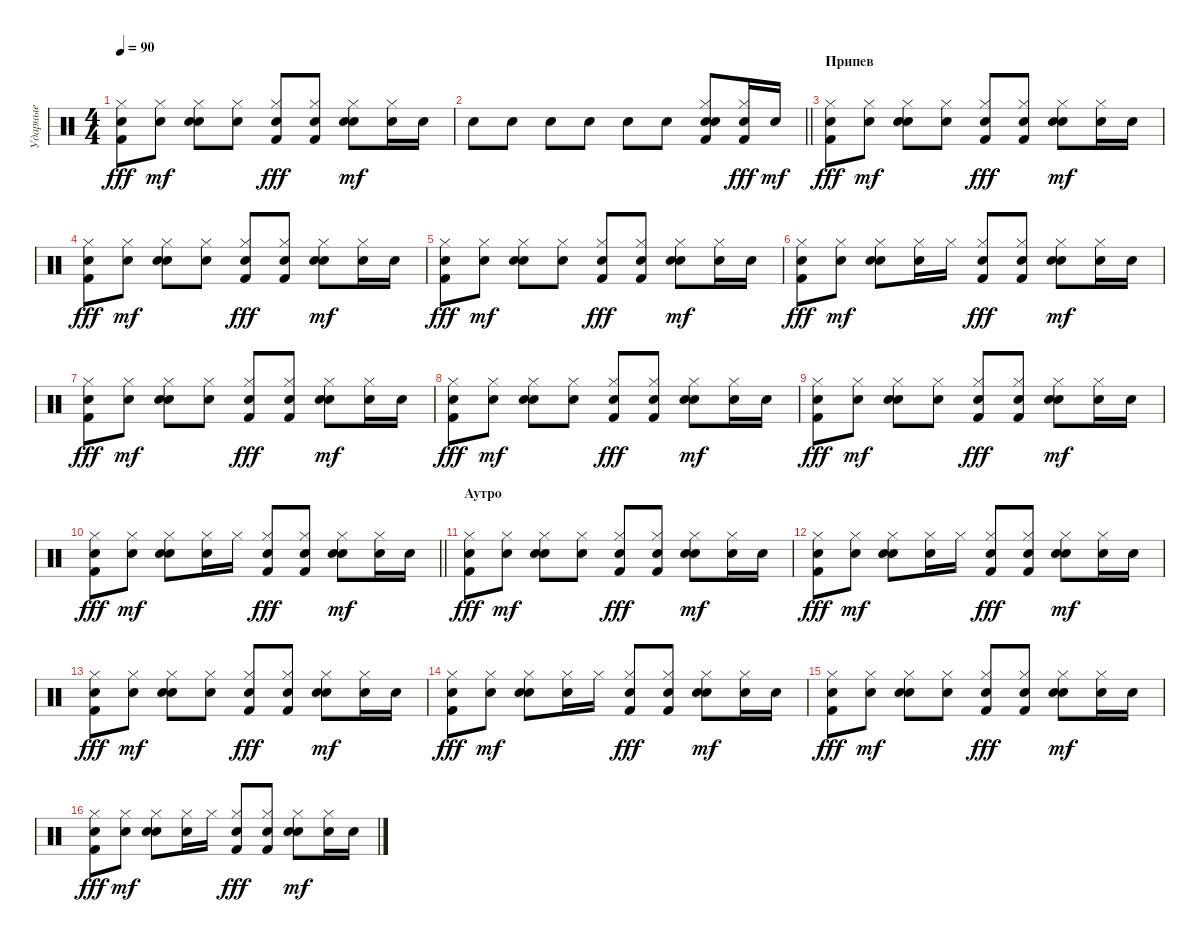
\track ("Ударные" "Ударные") {instrument percussion}
\staff {score}
\articulation defaults
\ts (4 4)
\tempo 90
\clef neutral
\ks c
("Hand Clap (hit)" "Hi-Hat (closed)" "Kick (hit) 2").8{dy fff} ("Hand Clap (hit)" "Hi-Hat (closed)").8{dy mf} ("Hand Clap (hit)" "Hi-Hat (closed)" "Snare (hit) 2").8 ("Hand Clap (hit)" "Hi-Hat (closed)").8 ("Hand Clap (hit)" "Hi-Hat (closed)" "Kick (hit) 2").8{dy fff} ("Hand Clap (hit)" "Hi-Hat (closed)" "Kick (hit) 2").8 ("Hand Clap (hit)" "Hi-Hat (closed)" "Snare (hit) 2").8{dy mf} ("Hand Clap (hit)" "Hi-Hat (closed)").16 "Hand Clap (hit)".16 |
\barLineRight lightlight "Hand Clap (hit)".8 "Hand Clap (hit)".8 "Hand Clap (hit)".8 "Hand Clap (hit)".8 "Hand Clap (hit)".8 "Hand Clap (hit)".8
("Hand Clap (hit)" "Hi-Hat (closed)" "Snare (hit) 2" "Kick (hit) 2").8 ("Hand Clap (hit)" "Hi-Hat (closed)" "Kick (hit) 2").16{dy fff} "Hand Clap (hit)".16{dy mf} |
\section ("" "Припев")
("Hand Clap (hit)" "Hi-Hat (closed)" "Kick (hit) 2").8{dy fff} ("Hand Clap (hit)" "Hi-Hat (closed)").8{dy mf} ("Hand Clap (hit)" "Hi-Hat (closed)" "Snare (hit) 2").8 ("Hand Clap (hit)" "Hi-Hat (closed)").8 ("Hand Clap (hit)" "Hi-Hat (closed)" "Kick (hit) 2").8{dy fff} ("Hand Clap (hit)" "Hi-Hat (closed)" "Kick (hit) 2").8 ("Hand Clap (hit)" "Hi-Hat (closed)" "Snare (hit) 2").8{dy mf} ("Hand Clap (hit)" "Hi-Hat (closed)").16 "Hand Clap (hit)".16 |
("Hand Clap (hit)" "Hi-Hat (closed)" "Kick (hit) 2").8{dy fff} ("Hand Clap (hit)" "Hi-Hat (closed)").8{dy mf} ("Hand Clap (hit)" "Hi-Hat (closed)" "Snare (hit) 2").8 ("Hand Clap (hit)" "Hi-Hat (closed)").8 ("Hand Clap (hit)" "Hi-Hat (closed)" "Kick (hit) 2").8{dy fff} ("Hand Clap (hit)" "Hi-Hat (closed)" "Kick (hit) 2").8 ("Hand Clap (hit)" "Hi-Hat (closed)" "Snare (hit) 2").8{dy mf} ("Hand Clap (hit)" "Hi-Hat (closed)").16 "Hand Clap (hit)".16 |
("Hand Clap (hit)" "Hi-Hat (closed)" "Kick (hit) 2").8{dy fff} ("Hand Clap (hit)" "Hi-Hat (closed)").8{dy mf} ("Hand Clap (hit)" "Hi-Hat (closed)" "Snare (hit) 2").8 ("Hand Clap (hit)" "Hi-Hat (closed)").8 ("Hand Clap (hit)" "Hi-Hat (closed)" "Kick (hit) 2").8{dy fff} ("Hand Clap (hit)" "Hi-Hat (closed)" "Kick (hit) 2").8 ("Hand Clap (hit)" "Hi-Hat (closed)" "Snare (hit) 2").8{dy mf} ("Hand Clap (hit)" "Hi-Hat (closed)").16 "Hand Clap (hit)".16 |
("Hand Clap (hit)" "Hi-Hat (closed)" "Kick (hit) 2").8{dy fff} ("Hand Clap (hit)" "Hi-Hat (closed)").8{dy mf} ("Hand Clap (hit)" "Hi-Hat (closed)" "Snare (hit) 2").8 ("Hand Clap (hit)" "Hi-Hat (closed)").16 "Hi-Hat (closed)".16 ("Hand Clap (hit)" "Hi-Hat (closed)" "Kick (hit) 2").8{dy fff} ("Hand Clap (hit)" "Hi-Hat (closed)" "Kick (hit) 2").8 ("Hand Clap (hit)" "Hi-Hat (closed)" "Snare (hit) 2").8{dy mf} ("Hand Clap (hit)" "Hi-Hat (closed)").16 "Hand Clap (hit)".16 |
("Hand Clap (hit)" "Hi-Hat (closed)" "Kick (hit) 2").8{dy fff} ("Hand Clap (hit)" "Hi-Hat (closed)").8{dy mf} ("Hand Clap (hit)" "Hi-Hat (closed)" "Snare (hit) 2").8 ("Hand Clap (hit)" "Hi-Hat (closed)").8 ("Hand Clap (hit)" "Hi-Hat (closed)" "Kick (hit) 2").8{dy fff} ("Hand Clap (hit)" "Hi-Hat (closed)" "Kick (hit) 2").8 ("Hand Clap (hit)" "Hi-Hat (closed)" "Snare (hit) 2").8{dy mf} ("Hand Clap (hit)" "Hi-Hat (closed)").16 "Hand Clap (hit)".16 |
("Hand Clap (hit)" "Hi-Hat (closed)" "Kick (hit) 2").8{dy fff} ("Hand Clap (hit)" "Hi-Hat (closed)").8{dy mf} ("Hand Clap (hit)" "Hi-Hat (closed)" "Snare (hit) 2").8 ("Hand Clap (hit)" "Hi-Hat (closed)").8 ("Hand Clap (hit)" "Hi-Hat (closed)" "Kick (hit) 2").8{dy fff} ("Hand Clap (hit)" "Hi-Hat (closed)" "Kick (hit) 2").8 ("Hand Clap (hit)" "Hi-Hat (closed)" "Snare (hit) 2").8{dy mf} ("Hand Clap (hit)" "Hi-Hat (closed)").16 "Hand Clap (hit)".16 |
("Hand Clap (hit)" "Hi-Hat (closed)" "Kick (hit) 2").8{dy fff} ("Hand Clap (hit)" "Hi-Hat (closed)").8{dy mf} ("Hand Clap (hit)" "Hi-Hat (closed)" "Snare (hit) 2").8 ("Hand Clap (hit)" "Hi-Hat (closed)").8 ("Hand Clap (hit)" "Hi-Hat (closed)" "Kick (hit) 2").8{dy fff} ("Hand Clap (hit)" "Hi-Hat (closed)" "Kick (hit) 2").8 ("Hand Clap (hit)" "Hi-Hat (closed)" "Snare (hit) 2").8{dy mf} ("Hand Clap (hit)" "Hi-Hat (closed)").16 "Hand Clap (hit)".16 |
\barLineRight lightlight
("Hand Clap (hit)" "Hi-Hat (closed)" "Kick (hit) 2").8{dy fff} ("Hand Clap (hit)" "Hi-Hat (closed)").8{dy mf} ("Hand Clap (hit)" "Hi-Hat (closed)" "Snare (hit) 2").8 ("Hand Clap (hit)" "Hi-Hat (closed)").16 "Hi-Hat (closed)".16 ("Hand Clap (hit)" "Hi-Hat (closed)" "Kick (hit) 2").8{dy fff} ("Hand Clap (hit)" "Hi-Hat (closed)" "Kick (hit) 2").8 ("Hand Clap (hit)" "Hi-Hat (closed)" "Snare (hit) 2").8{dy mf} ("Hand Clap (hit)" "Hi-Hat (closed)").16 "Hand Clap (hit)".16 |
\section ("" "Аутро")
("Hand Clap (hit)" "Hi-Hat (closed)" "Kick (hit) 2").8{dy fff} ("Hand Clap (hit)" "Hi-Hat (closed)").8{dy mf} ("Hand Clap (hit)" "Hi-Hat (closed)" "Snare (hit) 2").8 ("Hand Clap (hit)" "Hi-Hat (closed)").8 ("Hand Clap (hit)" "Hi-Hat (closed)" "Kick (hit) 2").8{dy fff} ("Hand Clap (hit)" "Hi-Hat (closed)" "Kick (hit) 2").8 ("Hand Clap (hit)" "Hi-Hat (closed)" "Snare (hit) 2").8{dy mf} ("Hand Clap (hit)" "Hi-Hat (closed)").16 "Hand Clap (hit)".16 |
("Hand Clap (hit)" "Hi-Hat (closed)" "Kick (hit) 2").8{dy fff} ("Hand Clap (hit)" "Hi-Hat (closed)").8{dy mf} ("Hand Clap (hit)" "Hi-Hat (closed)" "Snare (hit) 2").8 ("Hand Clap (hit)" "Hi-Hat (closed)").16 "Hi-Hat (closed)".16 ("Hand Clap (hit)" "Hi-Hat (closed)" "Kick (hit) 2").8{dy fff} ("Hand Clap (hit)" "Hi-Hat (closed)" "Kick (hit) 2").8 ("Hand Clap (hit)" "Hi-Hat (closed)" "Snare (hit) 2").8{dy mf} ("Hand Clap (hit)" "Hi-Hat (closed)").16 "Hand Clap (hit)".16 |
("Hand Clap (hit)" "Hi-Hat (closed)" "Kick (hit) 2").8{dy fff} ("Hand Clap (hit)" "Hi-Hat (closed)").8{dy mf} ("Hand Clap (hit)" "Hi-Hat (closed)" "Snare (hit) 2").8 ("Hand Clap (hit)" "Hi-Hat (closed)").8 ("Hand Clap (hit)" "Hi-Hat (closed)" "Kick (hit) 2").8{dy fff} ("Hand Clap (hit)" "Hi-Hat (closed)" "Kick (hit) 2").8 ("Hand Clap (hit)" "Hi-Hat (closed)" "Snare (hit) 2").8{dy mf} ("Hand Clap (hit)" "Hi-Hat (closed)").16 "Hand Clap (hit)".16 |
("Hand Clap (hit)" "Hi-Hat (closed)" "Kick (hit) 2").8{dy fff} ("Hand Clap (hit)" "Hi-Hat (closed)").8{dy mf} ("Hand Clap (hit)" "Hi-Hat (closed)" "Snare (hit) 2").8 ("Hand Clap (hit)" "Hi-Hat (closed)").16 "Hi-Hat (closed)".16 ("Hand Clap (hit)" "Hi-Hat (closed)" "Kick (hit) 2").8{dy fff} ("Hand Clap (hit)" "Hi-Hat (closed)" "Kick (hit) 2").8 ("Hand Clap (hit)" "Hi-Hat (closed)" "Snare (hit) 2").8{dy mf} ("Hand Clap (hit)" "Hi-Hat (closed)").16 "Hand Clap (hit)".16 |
("Hand Clap (hit)" "Hi-Hat (closed)" "Kick (hit) 2").8{dy fff} ("Hand Clap (hit)" "Hi-Hat (closed)").8{dy mf} ("Hand Clap (hit)" "Hi-Hat (closed)" "Snare (hit) 2").8 ("Hand Clap (hit)" "Hi-Hat (closed)").8 ("Hand Clap (hit)" "Hi-Hat (closed)" "Kick (hit) 2").8{dy fff} ("Hand Clap (hit)" "Hi-Hat (closed)" "Kick (hit) 2").8 ("Hand Clap (hit)" "Hi-Hat (closed)" "Snare (hit) 2").8{dy mf} ("Hand Clap (hit)" "Hi-Hat (closed)").16 "Hand Clap (hit)".16 |
("Hand Clap (hit)" "Hi-Hat (closed)" "Kick (hit) 2").8{dy fff} ("Hand Clap (hit)" "Hi-Hat (closed)").8{dy mf} ("Hand Clap (hit)" "Hi-Hat (closed)" "Snare (hit) 2").8 ("Hand Clap (hit)" "Hi-Hat (closed)").16 "Hi-Hat (closed)".16 ("Hand Clap (hit)" "Hi-Hat (closed)" "Kick (hit) 2").8{dy fff} ("Hand Clap (hit)" "Hi-Hat (closed)" "Kick (hit) 2").8 ("Hand Clap (hit)" "Hi-Hat (closed)" "Snare (hit) 2").8{dy mf} ("Hand Clap (hit)" "Hi-Hat (closed)").16 "Hand Clap (hit)".16
